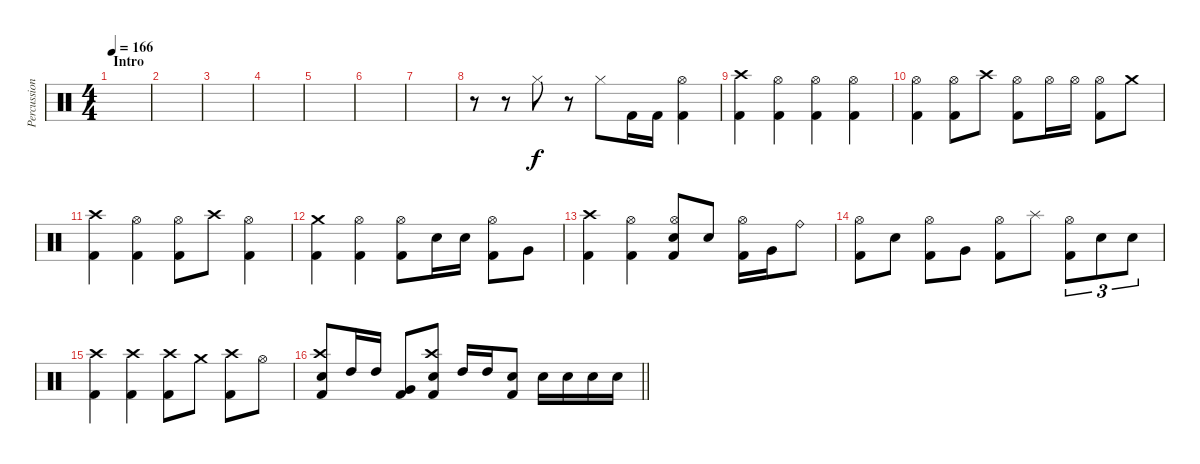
\track ("Percussion" "Percussion") {instrument percussion}
\staff {score}
\articulation defaults
\ts (4 4)
\section ("" "Intro")
\tempo 166
\clef neutral
\ks c
|
|
|
|
|
|
|
r.8 r.8 "Hi-Hat (closed)".8 r.8 "Hi-Hat (closed)".8 "Kick (hit) 2".16 "Kick (hit) 2".16 ("Hi-Hat (open)" "Kick (hit) 2").4 |
("Crash high (hit)" "Kick (hit) 2").4 ("Hi-Hat (open)" "Kick (hit) 2").4 ("Hi-Hat (open)" "Kick (hit) 2").4 ("Hi-Hat (open)" "Kick (hit) 2").4 |
("Hi-Hat (open)" "Kick (hit) 2").4 ("Hi-Hat (open)" "Kick (hit) 2").8 "Crash high (hit)".8 ("Hi-Hat (open)" "Kick (hit) 2").8 "Hi-Hat (open)".16 "Hi-Hat (open)".16 ("Hi-Hat (open)" "Kick (hit) 2").8 "Crash medium (hit)".8 |
("Crash high (hit)" "Kick (hit) 2").4 ("Hi-Hat (open)" "Kick (hit) 2").4 ("Hi-Hat (open)" "Kick (hit) 2").8 "Crash high (hit)".8 ("Hi-Hat (open)" "Kick (hit) 2").4 |
("Crash medium (hit)" "Kick (hit) 2").4 ("Hi-Hat (open)" "Kick (hit) 2").4 ("Hi-Hat (open)" "Kick (hit) 2").8 "Electric Snare (hit)".16 "Electric Snare (hit)".16 ("Hi-Hat (open)" "Kick (hit) 2").8 "Very Low Tom (hit)".8 |
("Crash high (hit)" "Kick (hit) 2").4 ("Hi-Hat (open)" "Kick (hit) 2").4 ("Hi-Hat (open)" "Electric Snare (hit)" "Kick (hit) 2").8 "Electric Snare (hit)".8 ("Hi-Hat (open)" "Kick (hit) 2").16 "Very Low Tom (hit)".16 "Ride (bell)".8 |
("Hi-Hat (open)" "Kick (hit) 2").8 "Electric Snare (hit)".8 ("Hi-Hat (open)" "Kick (hit) 2").8 "Very Low Tom (hit)".8 ("Hi-Hat (open)" "Kick (hit) 2").8 "Splash (hit)".8 ("Hi-Hat (open)" "Kick (hit) 2").8{tu (3 2)} "Electric Snare (hit)".8{tu (3 2)} "Electric Snare (hit)".8{tu (3 2)} |
("Crash high (hit)" "Kick (hit) 2").4 ("Crash high (hit)" "Kick (hit) 2").4 ("Crash high (hit)" "Kick (hit) 2").8 "Crash medium (hit)".8 ("Crash high (hit)" "Kick (hit) 2").8 "Hi-Hat (open)".8 |
\barLineRight lightlight
("Crash high (hit)" "Electric Snare (hit)" "Kick (hit) 2").8 "High Tom (hit)".16 "High Tom (hit)".16 ("Very Low Tom (hit)" "Kick (hit) 2").8 ("Crash high (hit)" "Electric Snare (hit)" "Kick (hit) 2").8 "High Tom (hit)".16 "High Tom (hit)".16 ("Electric Snare (hit)" "Kick (hit) 2").8 "Electric Snare (hit)".16 "Electric Snare (hit)".16 "Electric Snare (hit)".16 "Electric Snare (hit)".16
